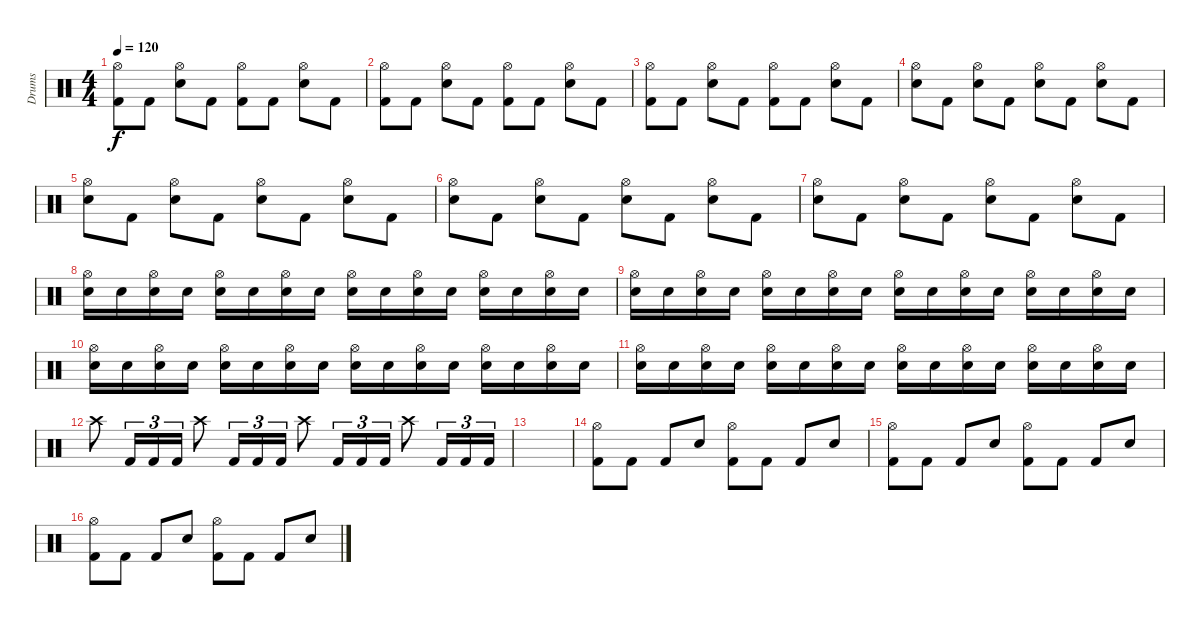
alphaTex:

\track ("Drums" "Drums") {instrument percussion}
\staff {score}
\articulation defaults
\ts (4 4)
\tempo 120
\clef neutral
\ks c
("Hi-Hat (open)" "Kick (hit) 2").8{dy f} "Kick (hit) 2".8 ("Hi-Hat (open)" "Electric Snare (hit)").8 "Kick (hit) 2".8 ("Hi-Hat (open)" "Kick (hit) 2").8 "Kick (hit) 2".8 ("Hi-Hat (open)" "Electric Snare (hit)").8 "Kick (hit) 2".8 |
("Hi-Hat (open)" "Kick (hit) 2").8 "Kick (hit) 2".8 ("Hi-Hat (open)" "Electric Snare (hit)").8 "Kick (hit) 2".8 ("Hi-Hat (open)" "Kick (hit) 2").8 "Kick (hit) 2".8 ("Hi-Hat (open)" "Electric Snare (hit)").8 "Kick (hit) 2".8 |
("Hi-Hat (open)" "Kick (hit) 2").8 "Kick (hit) 2".8 ("Hi-Hat (open)" "Electric Snare (hit)").8 "Kick (hit) 2".8 ("Hi-Hat (open)" "Kick (hit) 2").8 "Kick (hit) 2".8 ("Hi-Hat (open)" "Electric Snare (hit)").8 "Kick (hit) 2".8 |
("Hi-Hat (open)" "Electric Snare (hit)").8 "Kick (hit) 2".8 ("Hi-Hat (open)" "Electric Snare (hit)").8 "Kick (hit) 2".8 ("Hi-Hat (open)" "Electric Snare (hit)").8 "Kick (hit) 2".8 ("Hi-Hat (open)" "Electric Snare (hit)").8 "Kick (hit) 2".8 |
("Hi-Hat (open)" "Electric Snare (hit)").8 "Kick (hit) 2".8 ("Hi-Hat (open)" "Electric Snare (hit)").8 "Kick (hit) 2".8 ("Hi-Hat (open)" "Electric Snare (hit)").8 "Kick (hit) 2".8 ("Hi-Hat (open)" "Electric Snare (hit)").8 "Kick (hit) 2".8 |
("Hi-Hat (open)" "Electric Snare (hit)").8 "Kick (hit) 2".8 ("Hi-Hat (open)" "Electric Snare (hit)").8 "Kick (hit) 2".8 ("Hi-Hat (open)" "Electric Snare (hit)").8 "Kick (hit) 2".8 ("Hi-Hat (open)" "Electric Snare (hit)").8 "Kick (hit) 2".8 |
("Hi-Hat (open)" "Electric Snare (hit)").8 "Kick (hit) 2".8 ("Hi-Hat (open)" "Electric Snare (hit)").8 "Kick (hit) 2".8 ("Hi-Hat (open)" "Electric Snare (hit)").8 "Kick (hit) 2".8 ("Hi-Hat (open)" "Electric Snare (hit)").8 "Kick (hit) 2".8 |
("Hi-Hat (open)" "Electric Snare (hit)").16 "Electric Snare (hit)".16 ("Hi-Hat (open)" "Electric Snare (hit)").16 "Electric Snare (hit)".16 ("Hi-Hat (open)" "Electric Snare (hit)").16 "Electric Snare (hit)".16 ("Hi-Hat (open)" "Electric Snare (hit)").16 "Electric Snare (hit)".16 ("Hi-Hat (open)" "Electric Snare (hit)").16 "Electric Snare (hit)".16 ("Hi-Hat (open)" "Electric Snare (hit)").16 "Electric Snare (hit)".16 ("Hi-Hat (open)" "Electric Snare (hit)").16 "Electric Snare (hit)".16 ("Hi-Hat (open)" "Electric Snare (hit)").16 "Electric Snare (hit)".16 |
("Hi-Hat (open)" "Electric Snare (hit)").16 "Electric Snare (hit)".16 ("Hi-Hat (open)" "Electric Snare (hit)").16 "Electric Snare (hit)".16 ("Hi-Hat (open)" "Electric Snare (hit)").16 "Electric Snare (hit)".16 ("Hi-Hat (open)" "Electric Snare (hit)").16 "Electric Snare (hit)".16 ("Hi-Hat (open)" "Electric Snare (hit)").16 "Electric Snare (hit)".16 ("Hi-Hat (open)" "Electric Snare (hit)").16 "Electric Snare (hit)".16 ("Hi-Hat (open)" "Electric Snare (hit)").16 "Electric Snare (hit)".16 ("Hi-Hat (open)" "Electric Snare (hit)").16 "Electric Snare (hit)".16 |
("Hi-Hat (open)" "Electric Snare (hit)").16 "Electric Snare (hit)".16 ("Hi-Hat (open)" "Electric Snare (hit)").16 "Electric Snare (hit)".16 ("Hi-Hat (open)" "Electric Snare (hit)").16 "Electric Snare (hit)".16 ("Hi-Hat (open)" "Electric Snare (hit)").16 "Electric Snare (hit)".16 ("Hi-Hat (open)" "Electric Snare (hit)").16 "Electric Snare (hit)".16 ("Hi-Hat (open)" "Electric Snare (hit)").16 "Electric Snare (hit)".16 ("Hi-Hat (open)" "Electric Snare (hit)").16 "Electric Snare (hit)".16 ("Hi-Hat (open)" "Electric Snare (hit)").16 "Electric Snare (hit)".16 |
("Hi-Hat (open)" "Electric Snare (hit)").16 "Electric Snare (hit)".16 ("Hi-Hat (open)" "Electric Snare (hit)").16 "Electric Snare (hit)".16 ("Hi-Hat (open)" "Electric Snare (hit)").16 "Electric Snare (hit)".16 ("Hi-Hat (open)" "Electric Snare (hit)").16 "Electric Snare (hit)".16 ("Hi-Hat (open)" "Electric Snare (hit)").16 "Electric Snare (hit)".16 ("Hi-Hat (open)" "Electric Snare (hit)").16 "Electric Snare (hit)".16 ("Hi-Hat (open)" "Electric Snare (hit)").16 "Electric Snare (hit)".16 ("Hi-Hat (open)" "Electric Snare (hit)").16 "Electric Snare (hit)".16 |
"Crash high (hit)".8 "Kick (hit) 2".16{tu (3 2)} "Kick (hit) 2".16{tu (3 2)} "Kick (hit) 2".16{tu (3 2)} "Crash high (hit)".8 "Kick (hit) 2".16{tu (3 2)} "Kick (hit) 2".16{tu (3 2)} "Kick (hit) 2".16{tu (3 2)} "Crash high (hit)".8 "Kick (hit) 2".16{tu (3 2)} "Kick (hit) 2".16{tu (3 2)} "Kick (hit) 2".16{tu (3 2)} "Crash high (hit)".8 "Kick (hit) 2".16{tu (3 2)} "Kick (hit) 2".16{tu (3 2)} "Kick (hit) 2".16{tu (3 2)} |
|
("Hi-Hat (open)" "Kick (hit) 2").8 "Kick (hit) 2".8 "Kick (hit) 2".8 "Electric Snare (hit)".8 ("Hi-Hat (open)" "Kick (hit) 2").8 "Kick (hit) 2".8 "Kick (hit) 2".8 "Electric Snare (hit)".8 |
("Hi-Hat (open)" "Kick (hit) 2").8 "Kick (hit) 2".8 "Kick (hit) 2".8 "Electric Snare (hit)".8 ("Hi-Hat (open)" "Kick (hit) 2").8 "Kick (hit) 2".8 "Kick (hit) 2".8 "Electric Snare (hit)".8 |
("Hi-Hat (open)" "Kick (hit) 2").8 "Kick (hit) 2".8 "Kick (hit) 2".8 "Electric Snare (hit)".8 ("Hi-Hat (open)" "Kick (hit) 2").8 "Kick (hit) 2".8 "Kick (hit) 2".8 "Electric Snare (hit)".8
